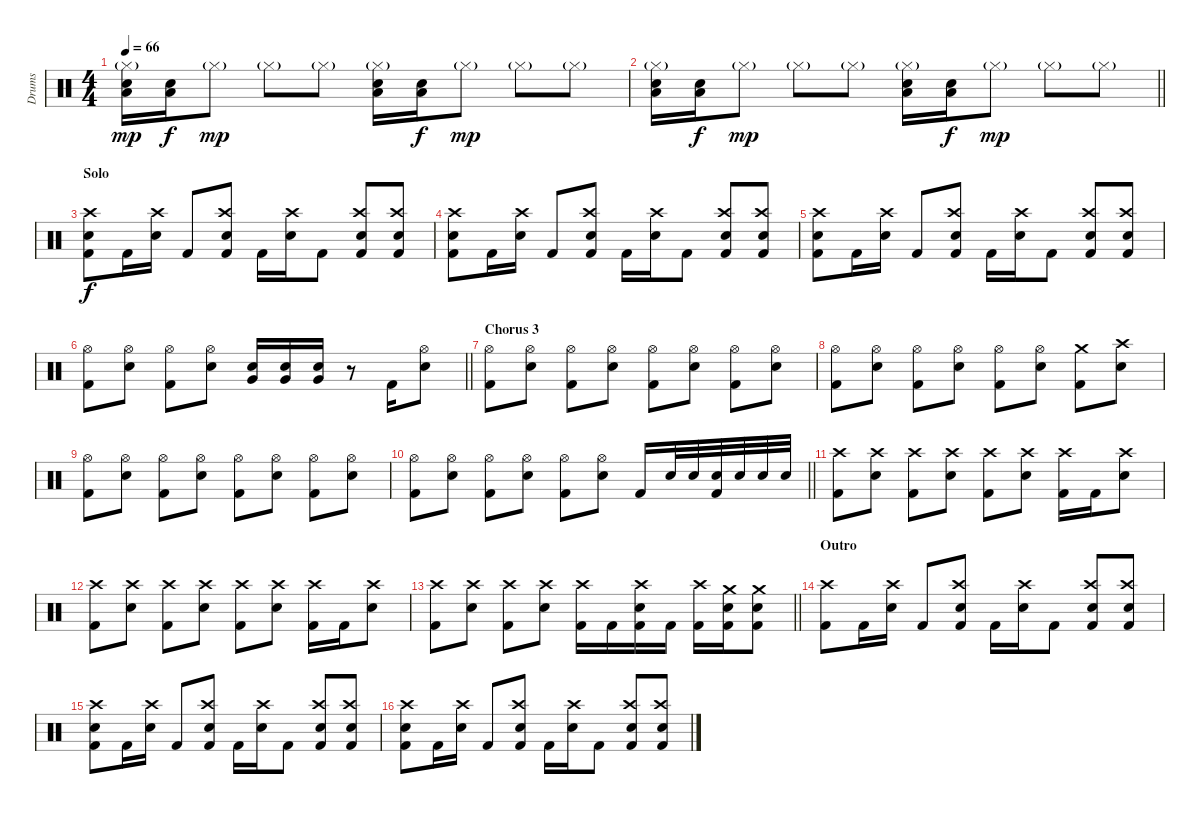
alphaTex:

\track ("Drums" "Drums") {instrument percussion}
\staff {score}
\articulation defaults
\ts (4 4)
\tempo 66
\clef neutral
\ks c
("Hi-Hat (closed)"{g} "Low Tom (hit)" "Electric Snare (hit)").16{dy mp} ("Low Tom (hit)" "Electric Snare (hit)").16{dy f} "Hi-Hat (closed)"{g}.8{dy mp} "Hi-Hat (closed)"{g}.8 "Hi-Hat (closed)"{g}.8 ("Hi-Hat (closed)"{g} "Low Tom (hit)" "Electric Snare (hit)").16 ("Low Tom (hit)" "Electric Snare (hit)").16{dy f} "Hi-Hat (closed)"{g}.8{dy mp} "Hi-Hat (closed)"{g}.8 "Hi-Hat (closed)"{g}.8 |
\barLineRight lightlight
("Hi-Hat (closed)"{g} "Low Tom (hit)" "Electric Snare (hit)").16 ("Low Tom (hit)" "Electric Snare (hit)").16{dy f} "Hi-Hat (closed)"{g}.8{dy mp} "Hi-Hat (closed)"{g}.8 "Hi-Hat (closed)"{g}.8 ("Hi-Hat (closed)"{g} "Low Tom (hit)" "Electric Snare (hit)").16 ("Low Tom (hit)" "Electric Snare (hit)").16{dy f} "Hi-Hat (closed)"{g}.8{dy mp} "Hi-Hat (closed)"{g}.8 "Hi-Hat (closed)"{g}.8 |
\section ("" "Solo")
("Crash high (hit)" "Electric Snare (hit)" "Kick (hit) 2").8{dy f} "Kick (hit) 2".16 ("Crash high (hit)" "Electric Snare (hit)").16 "Kick (hit) 2".8 ("Crash high (hit)" "Electric Snare (hit)" "Kick (hit) 2").8 "Kick (hit) 2".16 ("Crash high (hit)" "Electric Snare (hit)").16 "Kick (hit) 2".8 ("Crash high (hit)" "Electric Snare (hit)" "Kick (hit) 2").8 ("Crash high (hit)" "Electric Snare (hit)" "Kick (hit) 2").8 |
("Crash high (hit)" "Electric Snare (hit)" "Kick (hit) 2").8 "Kick (hit) 2".16 ("Crash high (hit)" "Electric Snare (hit)").16 "Kick (hit) 2".8 ("Crash high (hit)" "Electric Snare (hit)" "Kick (hit) 2").8 "Kick (hit) 2".16 ("Crash high (hit)" "Electric Snare (hit)").16 "Kick (hit) 2".8 ("Crash high (hit)" "Electric Snare (hit)" "Kick (hit) 2").8 ("Crash high (hit)" "Electric Snare (hit)" "Kick (hit) 2").8 |
("Crash high (hit)" "Electric Snare (hit)" "Kick (hit) 2").8 "Kick (hit) 2".16 ("Crash high (hit)" "Electric Snare (hit)").16 "Kick (hit) 2".8 ("Crash high (hit)" "Electric Snare (hit)" "Kick (hit) 2").8 "Kick (hit) 2".16 ("Crash high (hit)" "Electric Snare (hit)").16 "Kick (hit) 2".8 ("Crash high (hit)" "Electric Snare (hit)" "Kick (hit) 2").8 ("Crash high (hit)" "Electric Snare (hit)" "Kick (hit) 2").8 |
\barLineRight lightlight
("Hi-Hat (open)" "Kick (hit) 2").8 ("Hi-Hat (open)" "Electric Snare (hit)").8 ("Hi-Hat (open)" "Kick (hit) 2").8 ("Hi-Hat (open)" "Electric Snare (hit)").8 ("Very Low Tom (hit)" "Electric Snare (hit)").16 ("Very Low Tom (hit)" "Electric Snare (hit)").16 ("Very Low Tom (hit)" "Electric Snare (hit)").16 r.8 "Kick (hit) 2".16 ("Hi-Hat (open)" "Electric Snare (hit)").8 |
\section ("" "Chorus 3")
("Hi-Hat (open)" "Kick (hit) 2").8 ("Hi-Hat (open)" "Electric Snare (hit)").8 ("Hi-Hat (open)" "Kick (hit) 2").8 ("Hi-Hat (open)" "Electric Snare (hit)").8 ("Hi-Hat (open)" "Kick (hit) 2").8 ("Hi-Hat (open)" "Electric Snare (hit)").8 ("Hi-Hat (open)" "Kick (hit) 2").8 ("Hi-Hat (open)" "Electric Snare (hit)").8 |
("Hi-Hat (open)" "Kick (hit) 2").8 ("Hi-Hat (open)" "Electric Snare (hit)").8 ("Hi-Hat (open)" "Kick (hit) 2").8 ("Hi-Hat (open)" "Electric Snare (hit)").8 ("Hi-Hat (open)" "Kick (hit) 2").8 ("Hi-Hat (open)" "Electric Snare (hit)").8 ("Crash medium (hit)" "Kick (hit) 2").8 ("Crash high (hit)" "Electric Snare (hit)").8 |
("Hi-Hat (open)" "Kick (hit) 2").8 ("Hi-Hat (open)" "Electric Snare (hit)").8 ("Hi-Hat (open)" "Kick (hit) 2").8 ("Hi-Hat (open)" "Electric Snare (hit)").8 ("Hi-Hat (open)" "Kick (hit) 2").8 ("Hi-Hat (open)" "Electric Snare (hit)").8 ("Hi-Hat (open)" "Kick (hit) 2").8 ("Hi-Hat (open)" "Electric Snare (hit)").8 |
\barLineRight lightlight
("Hi-Hat (open)" "Kick (hit) 2").8 ("Hi-Hat (open)" "Electric Snare (hit)").8 ("Hi-Hat (open)" "Kick (hit) 2").8 ("Hi-Hat (open)" "Electric Snare (hit)").8 ("Hi-Hat (open)" "Kick (hit) 2").8 ("Hi-Hat (open)" "Electric Snare (hit)").8 "Kick (hit) 2".16 "Electric Snare (hit)".32 "Electric Snare (hit)".32 ("Electric Snare (hit)" "Kick (hit) 2").32 "Electric Snare (hit)".32 "Electric Snare (hit)".32 "Electric Snare (hit)".32 |
("Crash high (hit)" "Kick (hit) 2").8 ("Crash high (hit)" "Electric Snare (hit)").8 ("Crash high (hit)" "Kick (hit) 2").8 ("Crash high (hit)" "Electric Snare (hit)").8 ("Crash high (hit)" "Kick (hit) 2").8 ("Crash high (hit)" "Electric Snare (hit)").8 ("Crash high (hit)" "Kick (hit) 2").16 "Kick (hit) 2".16 ("Crash high (hit)" "Electric Snare (hit)").8 |
("Crash high (hit)" "Kick (hit) 2").8 ("Crash high (hit)" "Electric Snare (hit)").8 ("Crash high (hit)" "Kick (hit) 2").8 ("Crash high (hit)" "Electric Snare (hit)").8 ("Crash high (hit)" "Kick (hit) 2").8 ("Crash high (hit)" "Electric Snare (hit)").8 ("Crash high (hit)" "Kick (hit) 2").16 "Kick (hit) 2".16 ("Crash high (hit)" "Electric Snare (hit)").8 |
\barLineRight lightlight
("Crash high (hit)" "Kick (hit) 2").8 ("Crash high (hit)" "Electric Snare (hit)").8 ("Crash high (hit)" "Kick (hit) 2").8 ("Crash high (hit)" "Electric Snare (hit)").8 ("Crash high (hit)" "Kick (hit) 2").16 "Kick (hit) 2".16 ("Crash high (hit)" "Electric Snare (hit)" "Kick (hit) 2").16 "Kick (hit) 2".16 ("Crash high (hit)" "Kick (hit) 2").16 ("Crash medium (hit)" "Electric Snare (hit)" "Kick (hit) 2").16 ("Crash medium (hit)" "Electric Snare (hit)" "Kick (hit) 2").8 |
\section ("" "Outro")
("Crash high (hit)" "Kick (hit) 2").8 "Kick (hit) 2".16 ("Crash high (hit)" "Electric Snare (hit)").16 "Kick (hit) 2".8 ("Crash high (hit)" "Electric Snare (hit)" "Kick (hit) 2").8 "Kick (hit) 2".16 ("Crash high (hit)" "Electric Snare (hit)").16 "Kick (hit) 2".8 ("Crash high (hit)" "Electric Snare (hit)" "Kick (hit) 2").8 ("Crash high (hit)" "Electric Snare (hit)" "Kick (hit) 2").8 |
("Crash high (hit)" "Electric Snare (hit)" "Kick (hit) 2").8 "Kick (hit) 2".16 ("Crash high (hit)" "Electric Snare (hit)").16 "Kick (hit) 2".8 ("Crash high (hit)" "Electric Snare (hit)" "Kick (hit) 2").8 "Kick (hit) 2".16 ("Crash high (hit)" "Electric Snare (hit)").16 "Kick (hit) 2".8 ("Crash high (hit)" "Electric Snare (hit)" "Kick (hit) 2").8 ("Crash high (hit)" "Electric Snare (hit)" "Kick (hit) 2").8 |
("Crash high (hit)" "Electric Snare (hit)" "Kick (hit) 2").8 "Kick (hit) 2".16 ("Crash high (hit)" "Electric Snare (hit)").16 "Kick (hit) 2".8 ("Crash high (hit)" "Electric Snare (hit)" "Kick (hit) 2").8 "Kick (hit) 2".16 ("Crash high (hit)" "Electric Snare (hit)").16 "Kick (hit) 2".8 ("Crash high (hit)" "Electric Snare (hit)" "Kick (hit) 2").8 ("Crash high (hit)" "Electric Snare (hit)" "Kick (hit) 2").8
